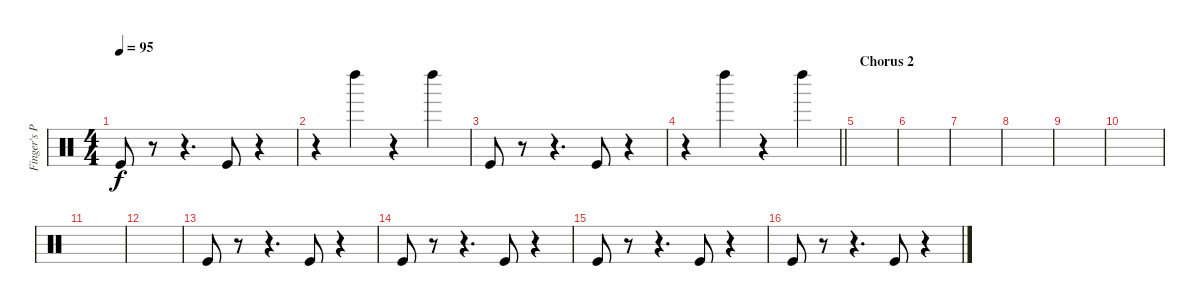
\track ("Finger's Percussive" "Finger's P") {instrument percussion}
\staff {score}
\articulation defaults
\ts (4 4)
\tempo 95
\clef neutral
\ks c "Kick (hit)".8{dy f}
r.8 r.4{d} "Kick (hit)".8 r.4 |
r.4 "Left Maraca (hit)".4 r.4 "Left Maraca (hit)".4 |
"Kick (hit)".8 r.8 r.4{d} "Kick (hit)".8 r.4 |
\barLineRight lightlight
r.4 "Left Maraca (hit)".4 r.4 "Left Maraca (hit)".4 |
\section ("" "Chorus 2")
|
|
|
|
|
|
|
|
"Kick (hit)".8 r.8 r.4{d} "Kick (hit)".8 r.4 |
"Kick (hit)".8 r.8 r.4{d} "Kick (hit)".8 r.4 |
"Kick (hit)".8 r.8 r.4{d} "Kick (hit)".8 r.4 |
"Kick (hit)".8 r.8 r.4{d} "Kick (hit)".8 r.4
